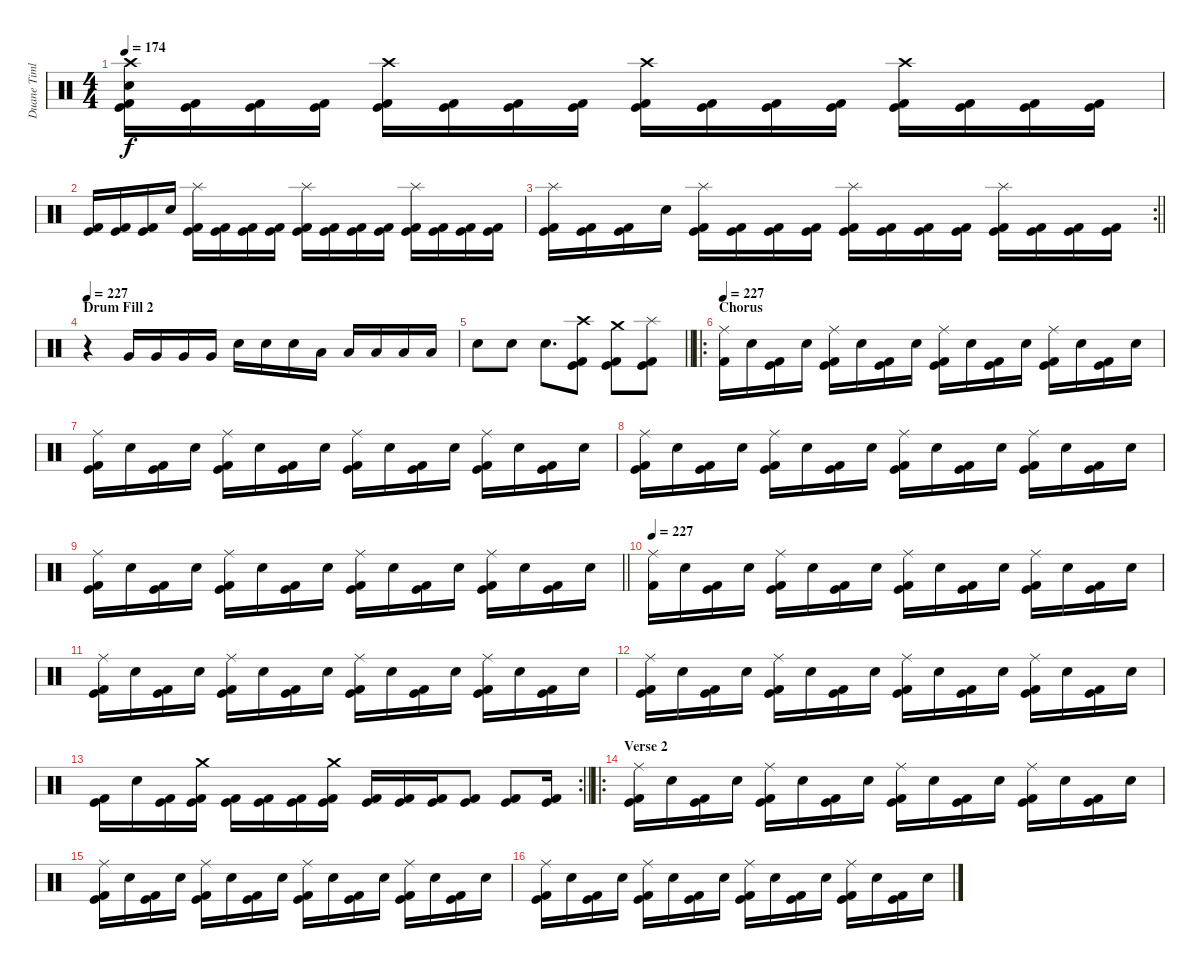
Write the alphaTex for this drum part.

\track ("Duane Timlin" "Duane Timl") {instrument percussion}
\staff {score}
\articulation defaults
\ts (4 4)
\tempo 174
\clef neutral
\ks c
("Crash high (hit)" "Snare (hit) 2" "Kick (hit)" "Kick (hit) 2").16{dy f} ("Kick (hit)" "Kick (hit) 2").16 ("Kick (hit)" "Kick (hit) 2").16 ("Kick (hit)" "Kick (hit) 2").16 ("Crash high (hit)" "Kick (hit)" "Kick (hit) 2").16 ("Kick (hit)" "Kick (hit) 2").16 ("Kick (hit)" "Kick (hit) 2").16 ("Kick (hit)" "Kick (hit) 2").16 ("Crash high (hit)" "Kick (hit)" "Kick (hit) 2").16 ("Kick (hit)" "Kick (hit) 2").16 ("Kick (hit)" "Kick (hit) 2").16 ("Kick (hit)" "Kick (hit) 2").16 ("Crash high (hit)" "Kick (hit)" "Kick (hit) 2").16 ("Kick (hit)" "Kick (hit) 2").16 ("Kick (hit)" "Kick (hit) 2").16 ("Kick (hit)" "Kick (hit) 2").16 |
("Kick (hit)" "Kick (hit) 2").16 ("Kick (hit)" "Kick (hit) 2").16 ("Kick (hit)" "Kick (hit) 2").16 "Snare (hit) 2".16 ("Splash (hit)" "Kick (hit)" "Kick (hit) 2").16 ("Kick (hit)" "Kick (hit) 2").16 ("Kick (hit)" "Kick (hit) 2").16 ("Kick (hit)" "Kick (hit) 2").16 ("Splash (hit)" "Kick (hit)" "Kick (hit) 2").16 ("Kick (hit)" "Kick (hit) 2").16 ("Kick (hit)" "Kick (hit) 2").16 ("Kick (hit)" "Kick (hit) 2").16 ("Splash (hit)" "Kick (hit)" "Kick (hit) 2").16 ("Kick (hit)" "Kick (hit) 2").16 ("Kick (hit)" "Kick (hit) 2").16 ("Kick (hit)" "Kick (hit) 2").16 |
\rc 2
\barLineRight lightlight
("Splash (hit)" "Kick (hit)" "Kick (hit) 2").16 ("Kick (hit)" "Kick (hit) 2").16 ("Kick (hit)" "Kick (hit) 2").16 "Snare (hit) 2".16 ("Splash (hit)" "Kick (hit)" "Kick (hit) 2").16 ("Kick (hit)" "Kick (hit) 2").16 ("Kick (hit)" "Kick (hit) 2").16 ("Kick (hit)" "Kick (hit) 2").16 ("Splash (hit)" "Kick (hit)" "Kick (hit) 2").16 ("Kick (hit)" "Kick (hit) 2").16 ("Kick (hit)" "Kick (hit) 2").16 ("Kick (hit)" "Kick (hit) 2").16 ("Splash (hit)" "Kick (hit)" "Kick (hit) 2").16 ("Kick (hit)" "Kick (hit) 2").16 ("Kick (hit)" "Kick (hit) 2").16 ("Kick (hit)" "Kick (hit) 2").16 |
\section ("" "Drum Fill 2")
\tempo 227
r.4 "Very Low Tom (hit)".16 "Very Low Tom (hit)".16 "Very Low Tom (hit)".16 "Very Low Tom (hit)".16 "Snare (hit) 2".16 "Snare (hit) 2".16 "Snare (hit) 2".16 "Low Floor Tom (hit)".16 "Low Floor Tom (hit)".16 "Low Floor Tom (hit)".16 "Low Floor Tom (hit)".16 "Low Floor Tom (hit)".16 |
\barLineRight lightlight "Snare (hit) 2".8 "Snare (hit) 2".8 "Snare (hit) 2".8{d}
("Crash high (hit)" "Kick (hit)" "Kick (hit) 2").8 ("Crash medium (hit)" "Kick (hit)" "Kick (hit) 2").8 ("Splash (hit)" "Kick (hit)" "Kick (hit) 2").8 |
\ro
\section ("" "Chorus")
\tempo 227
("Ride (middle)" "Kick (hit) 2").16 "Snare (hit) 2".16 ("Kick (hit)" "Kick (hit) 2").16 "Snare (hit) 2".16 ("Ride (middle)" "Kick (hit)" "Kick (hit) 2").16 "Snare (hit) 2".16 ("Kick (hit)" "Kick (hit) 2").16 "Snare (hit) 2".16 ("Ride (middle)" "Kick (hit)" "Kick (hit) 2").16 "Snare (hit) 2".16 ("Kick (hit)" "Kick (hit) 2").16 "Snare (hit) 2".16 ("Ride (middle)" "Kick (hit)" "Kick (hit) 2").16 "Snare (hit) 2".16 ("Kick (hit)" "Kick (hit) 2").16 "Snare (hit) 2".16 |
("Ride (middle)" "Kick (hit)" "Kick (hit) 2").16 "Snare (hit) 2".16 ("Kick (hit)" "Kick (hit) 2").16 "Snare (hit) 2".16 ("Ride (middle)" "Kick (hit)" "Kick (hit) 2").16 "Snare (hit) 2".16 ("Kick (hit)" "Kick (hit) 2").16 "Snare (hit) 2".16 ("Ride (middle)" "Kick (hit)" "Kick (hit) 2").16 "Snare (hit) 2".16 ("Kick (hit)" "Kick (hit) 2").16 "Snare (hit) 2".16 ("Ride (middle)" "Kick (hit)" "Kick (hit) 2").16 "Snare (hit) 2".16 ("Kick (hit)" "Kick (hit) 2").16 "Snare (hit) 2".16 |
("Ride (middle)" "Kick (hit)" "Kick (hit) 2").16 "Snare (hit) 2".16 ("Kick (hit)" "Kick (hit) 2").16 "Snare (hit) 2".16 ("Ride (middle)" "Kick (hit)" "Kick (hit) 2").16 "Snare (hit) 2".16 ("Kick (hit)" "Kick (hit) 2").16 "Snare (hit) 2".16 ("Ride (middle)" "Kick (hit)" "Kick (hit) 2").16 "Snare (hit) 2".16 ("Kick (hit)" "Kick (hit) 2").16 "Snare (hit) 2".16 ("Ride (middle)" "Kick (hit)" "Kick (hit) 2").16 "Snare (hit) 2".16 ("Kick (hit)" "Kick (hit) 2").16 "Snare (hit) 2".16 |
\barLineRight lightlight
("Ride (middle)" "Kick (hit)" "Kick (hit) 2").16 "Snare (hit) 2".16 ("Kick (hit)" "Kick (hit) 2").16 "Snare (hit) 2".16 ("Ride (middle)" "Kick (hit)" "Kick (hit) 2").16 "Snare (hit) 2".16 ("Kick (hit)" "Kick (hit) 2").16 "Snare (hit) 2".16 ("Ride (middle)" "Kick (hit)" "Kick (hit) 2").16 "Snare (hit) 2".16 ("Kick (hit)" "Kick (hit) 2").16 "Snare (hit) 2".16 ("Ride (middle)" "Kick (hit)" "Kick (hit) 2").16 "Snare (hit) 2".16 ("Kick (hit)" "Kick (hit) 2").16 "Snare (hit) 2".16 |
\tempo 227
("Ride (middle)" "Kick (hit) 2").16 "Snare (hit) 2".16 ("Kick (hit)" "Kick (hit) 2").16 "Snare (hit) 2".16 ("Ride (middle)" "Kick (hit)" "Kick (hit) 2").16 "Snare (hit) 2".16 ("Kick (hit)" "Kick (hit) 2").16 "Snare (hit) 2".16 ("Ride (middle)" "Kick (hit)" "Kick (hit) 2").16 "Snare (hit) 2".16 ("Kick (hit)" "Kick (hit) 2").16 "Snare (hit) 2".16 ("Ride (middle)" "Kick (hit)" "Kick (hit) 2").16 "Snare (hit) 2".16 ("Kick (hit)" "Kick (hit) 2").16 "Snare (hit) 2".16 |
("Ride (middle)" "Kick (hit)" "Kick (hit) 2").16 "Snare (hit) 2".16 ("Kick (hit)" "Kick (hit) 2").16 "Snare (hit) 2".16 ("Ride (middle)" "Kick (hit)" "Kick (hit) 2").16 "Snare (hit) 2".16 ("Kick (hit)" "Kick (hit) 2").16 "Snare (hit) 2".16 ("Ride (middle)" "Kick (hit)" "Kick (hit) 2").16 "Snare (hit) 2".16 ("Kick (hit)" "Kick (hit) 2").16 "Snare (hit) 2".16 ("Ride (middle)" "Kick (hit)" "Kick (hit) 2").16 "Snare (hit) 2".16 ("Kick (hit)" "Kick (hit) 2").16 "Snare (hit) 2".16 |
("Ride (middle)" "Kick (hit)" "Kick (hit) 2").16 "Snare (hit) 2".16 ("Kick (hit)" "Kick (hit) 2").16 "Snare (hit) 2".16 ("Ride (middle)" "Kick (hit)" "Kick (hit) 2").16 "Snare (hit) 2".16 ("Kick (hit)" "Kick (hit) 2").16 "Snare (hit) 2".16 ("Ride (middle)" "Kick (hit)" "Kick (hit) 2").16 "Snare (hit) 2".16 ("Kick (hit)" "Kick (hit) 2").16 "Snare (hit) 2".16 ("Ride (middle)" "Kick (hit)" "Kick (hit) 2").16 "Snare (hit) 2".16 ("Kick (hit)" "Kick (hit) 2").16 "Snare (hit) 2".16 |
\rc 2
\barLineRight lightlight
("Kick (hit)" "Kick (hit) 2").16 "Snare (hit) 2".16 ("Kick (hit)" "Kick (hit) 2").16 ("Crash medium (hit)" "Kick (hit)" "Kick (hit) 2").16 ("Kick (hit)" "Kick (hit) 2").16 ("Kick (hit)" "Kick (hit) 2").16 ("Kick (hit)" "Kick (hit) 2").16 ("Crash medium (hit)" "Kick (hit)" "Kick (hit) 2").16 ("Kick (hit)" "Kick (hit) 2").16 ("Kick (hit)" "Kick (hit) 2").16 ("Kick (hit)" "Kick (hit) 2").16 ("Kick (hit)" "Kick (hit) 2").8 ("Kick (hit)" "Kick (hit) 2").8 ("Kick (hit)" "Kick (hit) 2").16 |
\ro
\section ("" "Verse 2")
("Ride (middle)" "Kick (hit)" "Kick (hit) 2").16 "Snare (hit) 2".16 ("Kick (hit)" "Kick (hit) 2").16 "Snare (hit) 2".16 ("Ride (middle)" "Kick (hit)" "Kick (hit) 2").16 "Snare (hit) 2".16 ("Kick (hit)" "Kick (hit) 2").16 "Snare (hit) 2".16 ("Ride (middle)" "Kick (hit)" "Kick (hit) 2").16 "Snare (hit) 2".16 ("Kick (hit)" "Kick (hit) 2").16 "Snare (hit) 2".16 ("Ride (middle)" "Kick (hit)" "Kick (hit) 2").16 "Snare (hit) 2".16 ("Kick (hit)" "Kick (hit) 2").16 "Snare (hit) 2".16 |
("Ride (middle)" "Kick (hit)" "Kick (hit) 2").16 "Snare (hit) 2".16 ("Kick (hit)" "Kick (hit) 2").16 "Snare (hit) 2".16 ("Ride (middle)" "Kick (hit)" "Kick (hit) 2").16 "Snare (hit) 2".16 ("Kick (hit)" "Kick (hit) 2").16 "Snare (hit) 2".16 ("Ride (middle)" "Kick (hit)" "Kick (hit) 2").16 "Snare (hit) 2".16 ("Kick (hit)" "Kick (hit) 2").16 "Snare (hit) 2".16 ("Ride (middle)" "Kick (hit)" "Kick (hit) 2").16 "Snare (hit) 2".16 ("Kick (hit)" "Kick (hit) 2").16 "Snare (hit) 2".16 |
("Ride (middle)" "Kick (hit)" "Kick (hit) 2").16 "Snare (hit) 2".16 ("Kick (hit)" "Kick (hit) 2").16 "Snare (hit) 2".16 ("Ride (middle)" "Kick (hit)" "Kick (hit) 2").16 "Snare (hit) 2".16 ("Kick (hit)" "Kick (hit) 2").16 "Snare (hit) 2".16 ("Ride (middle)" "Kick (hit)" "Kick (hit) 2").16 "Snare (hit) 2".16 ("Kick (hit)" "Kick (hit) 2").16 "Snare (hit) 2".16 ("Ride (middle)" "Kick (hit)" "Kick (hit) 2").16 "Snare (hit) 2".16 ("Kick (hit)" "Kick (hit) 2").16 "Snare (hit) 2".16
